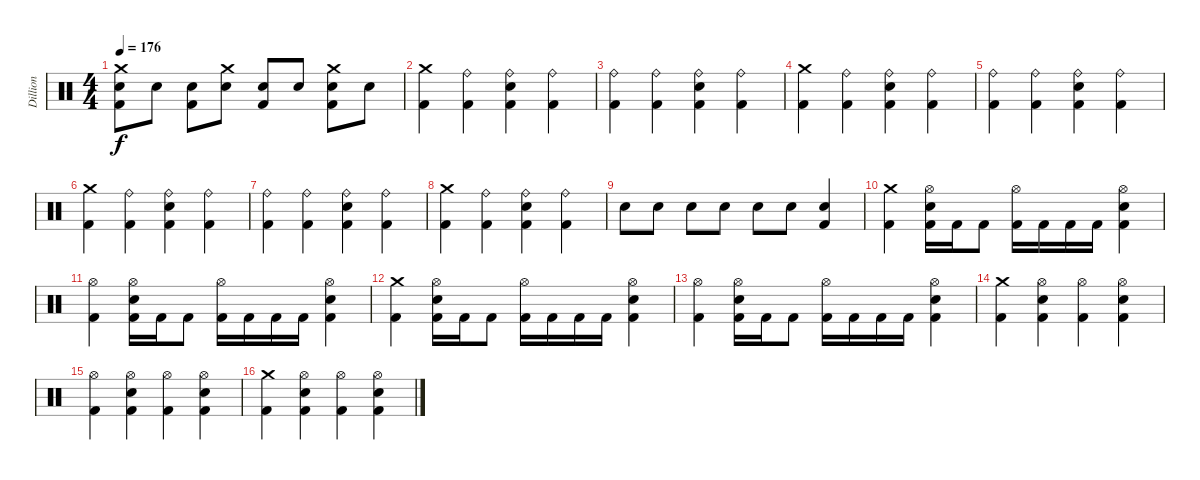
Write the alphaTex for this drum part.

\track ("Dillion" "Dillion") {instrument percussion}
\staff {score}
\articulation defaults
\ts (4 4)
\tempo 176
\clef neutral
\ks c
("Crash medium (hit)" "Electric Snare (hit)" "Kick (hit) 2").8{dy f} "Electric Snare (hit)".8 ("Electric Snare (hit)" "Kick (hit) 2").8 ("Crash medium (hit)" "Electric Snare (hit)").8 ("Electric Snare (hit)" "Kick (hit) 2").8 "Electric Snare (hit)".8 ("Crash medium (hit)" "Electric Snare (hit)" "Kick (hit) 2").8 "Electric Snare (hit)".8 |
("Crash medium (hit)" "Kick (hit) 2").4 ("Ride (bell)" "Kick (hit) 2").4 ("Ride (bell)" "Electric Snare (hit)" "Kick (hit) 2").4 ("Ride (bell)" "Kick (hit) 2").4 |
("Ride (bell)" "Kick (hit) 2").4 ("Ride (bell)" "Kick (hit) 2").4 ("Ride (bell)" "Electric Snare (hit)" "Kick (hit) 2").4 ("Ride (bell)" "Kick (hit) 2").4 |
("Crash medium (hit)" "Kick (hit) 2").4 ("Ride (bell)" "Kick (hit) 2").4 ("Ride (bell)" "Electric Snare (hit)" "Kick (hit) 2").4 ("Ride (bell)" "Kick (hit) 2").4 |
("Ride (bell)" "Kick (hit) 2").4 ("Ride (bell)" "Kick (hit) 2").4 ("Ride (bell)" "Electric Snare (hit)" "Kick (hit) 2").4 ("Ride (bell)" "Kick (hit) 2").4 |
("Crash medium (hit)" "Kick (hit) 2").4 ("Ride (bell)" "Kick (hit) 2").4 ("Ride (bell)" "Electric Snare (hit)" "Kick (hit) 2").4 ("Ride (bell)" "Kick (hit) 2").4 |
("Ride (bell)" "Kick (hit) 2").4 ("Ride (bell)" "Kick (hit) 2").4 ("Ride (bell)" "Electric Snare (hit)" "Kick (hit) 2").4 ("Ride (bell)" "Kick (hit) 2").4 |
("Crash medium (hit)" "Kick (hit) 2").4 ("Ride (bell)" "Kick (hit) 2").4 ("Ride (bell)" "Electric Snare (hit)" "Kick (hit) 2").4 ("Ride (bell)" "Kick (hit) 2").4 |
"Electric Snare (hit)".8 "Electric Snare (hit)".8 "Electric Snare (hit)".8 "Electric Snare (hit)".8 "Electric Snare (hit)".8 "Electric Snare (hit)".8 ("Electric Snare (hit)" "Kick (hit) 2").4 |
("Crash medium (hit)" "Kick (hit) 2").4 ("Hi-Hat (open)" "Electric Snare (hit)" "Kick (hit) 2").16 "Kick (hit) 2".16 "Kick (hit) 2".8 ("Hi-Hat (open)" "Kick (hit) 2").16 "Kick (hit) 2".16 "Kick (hit) 2".16 "Kick (hit) 2".16 ("Hi-Hat (open)" "Electric Snare (hit)" "Kick (hit) 2").4 |
("Hi-Hat (open)" "Kick (hit) 2").4 ("Hi-Hat (open)" "Electric Snare (hit)" "Kick (hit) 2").16 "Kick (hit) 2".16 "Kick (hit) 2".8 ("Hi-Hat (open)" "Kick (hit) 2").16 "Kick (hit) 2".16 "Kick (hit) 2".16 "Kick (hit) 2".16 ("Hi-Hat (open)" "Electric Snare (hit)" "Kick (hit) 2").4 |
("Crash medium (hit)" "Kick (hit) 2").4 ("Hi-Hat (open)" "Electric Snare (hit)" "Kick (hit) 2").16 "Kick (hit) 2".16 "Kick (hit) 2".8 ("Hi-Hat (open)" "Kick (hit) 2").16 "Kick (hit) 2".16 "Kick (hit) 2".16 "Kick (hit) 2".16 ("Hi-Hat (open)" "Electric Snare (hit)" "Kick (hit) 2").4 |
("Hi-Hat (open)" "Kick (hit) 2").4 ("Hi-Hat (open)" "Electric Snare (hit)" "Kick (hit) 2").16 "Kick (hit) 2".16 "Kick (hit) 2".8 ("Hi-Hat (open)" "Kick (hit) 2").16 "Kick (hit) 2".16 "Kick (hit) 2".16 "Kick (hit) 2".16 ("Hi-Hat (open)" "Electric Snare (hit)" "Kick (hit) 2").4 |
("Crash medium (hit)" "Kick (hit) 2").4 ("Hi-Hat (open)" "Electric Snare (hit)" "Kick (hit) 2").4 ("Hi-Hat (open)" "Kick (hit) 2").4 ("Hi-Hat (open)" "Electric Snare (hit)" "Kick (hit) 2").4 |
("Hi-Hat (open)" "Kick (hit) 2").4 ("Hi-Hat (open)" "Electric Snare (hit)" "Kick (hit) 2").4 ("Hi-Hat (open)" "Kick (hit) 2").4 ("Hi-Hat (open)" "Electric Snare (hit)" "Kick (hit) 2").4 |
("Crash medium (hit)" "Kick (hit) 2").4 ("Hi-Hat (open)" "Electric Snare (hit)" "Kick (hit) 2").4 ("Hi-Hat (open)" "Kick (hit) 2").4 ("Hi-Hat (open)" "Electric Snare (hit)" "Kick (hit) 2").4
